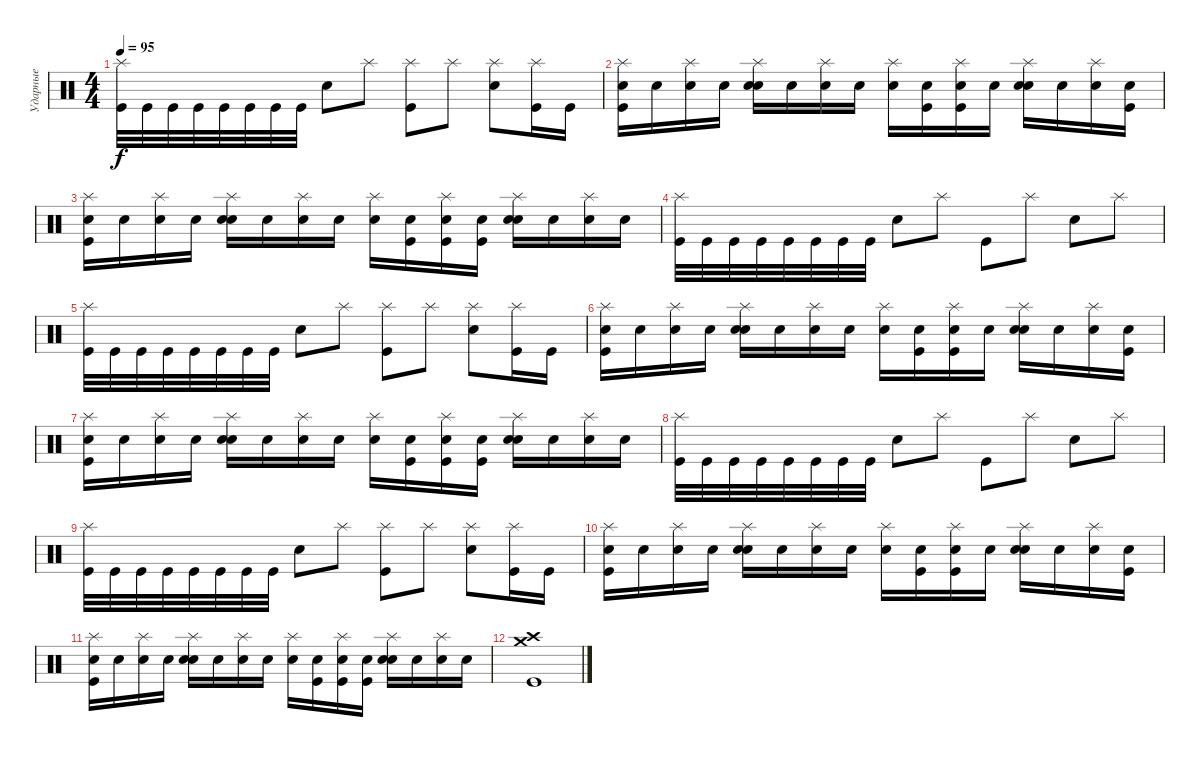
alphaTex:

\track ("Ударные" "Ударные") {instrument percussion}
\staff {score}
\articulation defaults
\ts (4 4)
\tempo 95
\clef neutral
\ks c
("Splash (hit)" "Kick (hit)").32{dy f} "Kick (hit)".32 "Kick (hit)".32 "Kick (hit)".32 "Kick (hit)".32 "Kick (hit)".32 "Kick (hit)".32 "Kick (hit)".32 "Electric Snare (hit)".8 "Splash (hit)".8 ("Splash (hit)" "Kick (hit)").8 "Splash (hit)".8 ("Splash (hit)" "Electric Snare (hit)").8 ("Splash (hit)" "Kick (hit)").16 "Kick (hit)".16 |
("Splash (hit)" "Kick (hit)" "Snare (hit)"{x}).16 "Snare (hit)"{x}.16 ("Splash (hit)" "Snare (hit)"{x}).16 "Snare (hit)"{x}.16 ("Splash (hit)" "Electric Snare (hit)" "Snare (hit)"{x}).16 "Snare (hit)"{x}.16 ("Splash (hit)" "Snare (hit)"{x}).16 "Snare (hit)"{x}.16 ("Splash (hit)" "Snare (hit)"{x}).16 ("Kick (hit)" "Snare (hit)"{x}).16 ("Splash (hit)" "Kick (hit)" "Snare (hit)"{x}).16 "Snare (hit)"{x}.16 ("Splash (hit)" "Electric Snare (hit)" "Snare (hit)"{x}).16 "Snare (hit)"{x}.16 ("Splash (hit)" "Snare (hit)"{x}).16 ("Kick (hit)" "Snare (hit)"{x}).16 |
("Splash (hit)" "Kick (hit)" "Snare (hit)"{x}).16 "Snare (hit)"{x}.16 ("Splash (hit)" "Snare (hit)"{x}).16 "Snare (hit)"{x}.16 ("Splash (hit)" "Electric Snare (hit)" "Snare (hit)"{x}).16 "Snare (hit)"{x}.16 ("Splash (hit)" "Snare (hit)"{x}).16 "Snare (hit)"{x}.16 ("Splash (hit)" "Snare (hit)"{x}).16 ("Kick (hit)" "Snare (hit)"{x}).16 ("Splash (hit)" "Kick (hit)" "Snare (hit)"{x}).16 ("Kick (hit)" "Snare (hit)"{x}).16 ("Splash (hit)" "Electric Snare (hit)" "Snare (hit)"{x}).16 "Snare (hit)"{x}.16 ("Splash (hit)" "Snare (hit)"{x}).16 "Snare (hit)"{x}.16 |
("Splash (hit)" "Kick (hit)").32 "Kick (hit)".32 "Kick (hit)".32 "Kick (hit)".32 "Kick (hit)".32 "Kick (hit)".32 "Kick (hit)".32 "Kick (hit)".32 "Electric Snare (hit)".8 "Splash (hit)".8 "Kick (hit)".8 "Splash (hit)".8 "Electric Snare (hit)".8 "Splash (hit)".8 |
("Splash (hit)" "Kick (hit)").32 "Kick (hit)".32 "Kick (hit)".32 "Kick (hit)".32 "Kick (hit)".32 "Kick (hit)".32 "Kick (hit)".32 "Kick (hit)".32 "Electric Snare (hit)".8 "Splash (hit)".8 ("Splash (hit)" "Kick (hit)").8 "Splash (hit)".8 ("Splash (hit)" "Electric Snare (hit)").8 ("Splash (hit)" "Kick (hit)").16 "Kick (hit)".16 |
("Splash (hit)" "Kick (hit)" "Snare (hit)"{x}).16 "Snare (hit)"{x}.16 ("Splash (hit)" "Snare (hit)"{x}).16 "Snare (hit)"{x}.16 ("Splash (hit)" "Electric Snare (hit)" "Snare (hit)"{x}).16 "Snare (hit)"{x}.16 ("Splash (hit)" "Snare (hit)"{x}).16 "Snare (hit)"{x}.16 ("Splash (hit)" "Snare (hit)"{x}).16 ("Kick (hit)" "Snare (hit)"{x}).16 ("Splash (hit)" "Kick (hit)" "Snare (hit)"{x}).16 "Snare (hit)"{x}.16 ("Splash (hit)" "Electric Snare (hit)" "Snare (hit)"{x}).16 "Snare (hit)"{x}.16 ("Splash (hit)" "Snare (hit)"{x}).16 ("Kick (hit)" "Snare (hit)"{x}).16 |
("Splash (hit)" "Kick (hit)" "Snare (hit)"{x}).16 "Snare (hit)"{x}.16 ("Splash (hit)" "Snare (hit)"{x}).16 "Snare (hit)"{x}.16 ("Splash (hit)" "Electric Snare (hit)" "Snare (hit)"{x}).16 "Snare (hit)"{x}.16 ("Splash (hit)" "Snare (hit)"{x}).16 "Snare (hit)"{x}.16 ("Splash (hit)" "Snare (hit)"{x}).16 ("Kick (hit)" "Snare (hit)"{x}).16 ("Splash (hit)" "Kick (hit)" "Snare (hit)"{x}).16 ("Kick (hit)" "Snare (hit)"{x}).16 ("Splash (hit)" "Electric Snare (hit)" "Snare (hit)"{x}).16 "Snare (hit)"{x}.16 ("Splash (hit)" "Snare (hit)"{x}).16 "Snare (hit)"{x}.16 |
("Splash (hit)" "Kick (hit)").32 "Kick (hit)".32 "Kick (hit)".32 "Kick (hit)".32 "Kick (hit)".32 "Kick (hit)".32 "Kick (hit)".32 "Kick (hit)".32 "Electric Snare (hit)".8 "Splash (hit)".8 "Kick (hit)".8 "Splash (hit)".8 "Electric Snare (hit)".8 "Splash (hit)".8 |
("Splash (hit)" "Kick (hit)").32 "Kick (hit)".32 "Kick (hit)".32 "Kick (hit)".32 "Kick (hit)".32 "Kick (hit)".32 "Kick (hit)".32 "Kick (hit)".32 "Electric Snare (hit)".8 "Splash (hit)".8 ("Splash (hit)" "Kick (hit)").8 "Splash (hit)".8 ("Splash (hit)" "Electric Snare (hit)").8 ("Splash (hit)" "Kick (hit)").16 "Kick (hit)".16 |
("Splash (hit)" "Kick (hit)" "Snare (hit)"{x}).16 "Snare (hit)"{x}.16 ("Splash (hit)" "Snare (hit)"{x}).16 "Snare (hit)"{x}.16 ("Splash (hit)" "Electric Snare (hit)" "Snare (hit)"{x}).16 "Snare (hit)"{x}.16 ("Splash (hit)" "Snare (hit)"{x}).16 "Snare (hit)"{x}.16 ("Splash (hit)" "Snare (hit)"{x}).16 ("Kick (hit)" "Snare (hit)"{x}).16 ("Splash (hit)" "Kick (hit)" "Snare (hit)"{x}).16 "Snare (hit)"{x}.16 ("Splash (hit)" "Electric Snare (hit)" "Snare (hit)"{x}).16 "Snare (hit)"{x}.16 ("Splash (hit)" "Snare (hit)"{x}).16 ("Kick (hit)" "Snare (hit)"{x}).16 |
("Splash (hit)" "Kick (hit)" "Snare (hit)"{x}).16 "Snare (hit)"{x}.16 ("Splash (hit)" "Snare (hit)"{x}).16 "Snare (hit)"{x}.16 ("Splash (hit)" "Electric Snare (hit)" "Snare (hit)"{x}).16 "Snare (hit)"{x}.16 ("Splash (hit)" "Snare (hit)"{x}).16 "Snare (hit)"{x}.16 ("Splash (hit)" "Snare (hit)"{x}).16 ("Kick (hit)" "Snare (hit)"{x}).16 ("Splash (hit)" "Kick (hit)" "Snare (hit)"{x}).16 ("Kick (hit)" "Snare (hit)"{x}).16 ("Splash (hit)" "Electric Snare (hit)" "Snare (hit)"{x}).16 "Snare (hit)"{x}.16 ("Splash (hit)" "Snare (hit)"{x}).16 "Snare (hit)"{x}.16 |
("Crash medium (hit)" "Crash high (hit)" "Kick (hit)").1
